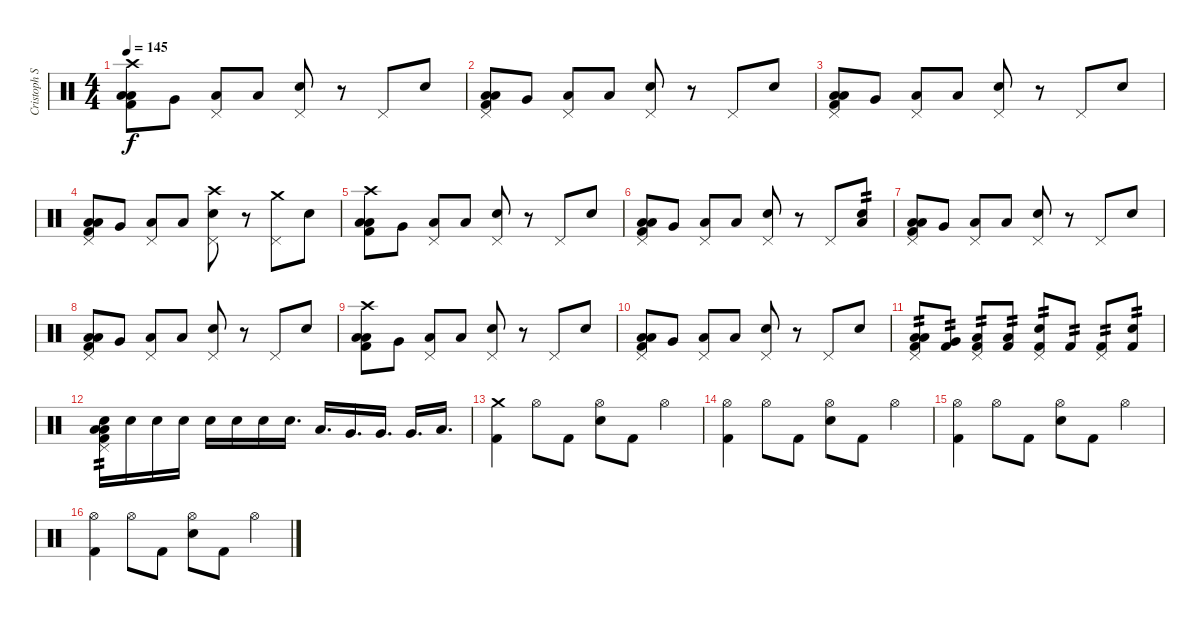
\track ("Cristoph Schneider" "Cristoph S") {instrument percussion}
\staff {score}
\articulation defaults
\ts (4 4)
\tempo 145
\clef neutral
\ks c
("Crash high (hit)" "Low Floor Tom (hit)" "Low Floor Tom (hit)" "Kick (hit) 2").8{dy f} "Very Low Tom (hit)".8 ("Pedal Hi-Hat (hit)" "Low Floor Tom (hit)").8 "Low Floor Tom (hit)".8 ("Pedal Hi-Hat (hit)" "Electric Snare (hit)").8 r.8 "Pedal Hi-Hat (hit)".8 "Electric Snare (hit)".8 |
("Pedal Hi-Hat (hit)" "Low Floor Tom (hit)" "Low Floor Tom (hit)" "Kick (hit) 2").8 "Very Low Tom (hit)".8 ("Pedal Hi-Hat (hit)" "Low Floor Tom (hit)").8 "Low Floor Tom (hit)".8 ("Pedal Hi-Hat (hit)" "Electric Snare (hit)").8 r.8 "Pedal Hi-Hat (hit)".8 "Electric Snare (hit)".8 |
("Pedal Hi-Hat (hit)" "Low Floor Tom (hit)" "Low Floor Tom (hit)" "Kick (hit) 2").8 "Very Low Tom (hit)".8 ("Pedal Hi-Hat (hit)" "Low Floor Tom (hit)").8 "Low Floor Tom (hit)".8 ("Pedal Hi-Hat (hit)" "Electric Snare (hit)").8 r.8 "Pedal Hi-Hat (hit)".8 "Electric Snare (hit)".8 |
("Pedal Hi-Hat (hit)" "Low Floor Tom (hit)" "Low Floor Tom (hit)" "Kick (hit) 2").8 "Very Low Tom (hit)".8 ("Pedal Hi-Hat (hit)" "Low Floor Tom (hit)").8 "Low Floor Tom (hit)".8 ("Crash high (hit)" "Pedal Hi-Hat (hit)" "Electric Snare (hit)").8 r.8 ("Crash medium (hit)" "Pedal Hi-Hat (hit)").8 "Electric Snare (hit)".8 |
("Crash high (hit)" "Low Floor Tom (hit)" "Low Floor Tom (hit)" "Kick (hit) 2").8 "Very Low Tom (hit)".8 ("Pedal Hi-Hat (hit)" "Low Floor Tom (hit)").8 "Low Floor Tom (hit)".8 ("Pedal Hi-Hat (hit)" "Electric Snare (hit)").8 r.8 "Pedal Hi-Hat (hit)".8 "Electric Snare (hit)".8 |
("Pedal Hi-Hat (hit)" "Low Floor Tom (hit)" "Low Floor Tom (hit)" "Kick (hit) 2").8 "Very Low Tom (hit)".8 ("Pedal Hi-Hat (hit)" "Low Floor Tom (hit)").8 "Low Floor Tom (hit)".8 ("Pedal Hi-Hat (hit)" "Electric Snare (hit)").8 r.8 "Pedal Hi-Hat (hit)".8 ("Electric Snare (hit)" "Low Floor Tom (hit)").8{tp 2} |
("Pedal Hi-Hat (hit)" "Low Floor Tom (hit)" "Low Floor Tom (hit)" "Kick (hit) 2").8 "Very Low Tom (hit)".8 ("Pedal Hi-Hat (hit)" "Low Floor Tom (hit)").8 "Low Floor Tom (hit)".8 ("Pedal Hi-Hat (hit)" "Electric Snare (hit)").8 r.8 "Pedal Hi-Hat (hit)".8 "Electric Snare (hit)".8 |
("Pedal Hi-Hat (hit)" "Low Floor Tom (hit)" "Low Floor Tom (hit)" "Kick (hit) 2").8 "Very Low Tom (hit)".8 ("Pedal Hi-Hat (hit)" "Low Floor Tom (hit)").8 "Low Floor Tom (hit)".8 ("Pedal Hi-Hat (hit)" "Electric Snare (hit)").8 r.8 "Pedal Hi-Hat (hit)".8 "Electric Snare (hit)".8 |
("Crash high (hit)" "Low Floor Tom (hit)" "Low Floor Tom (hit)" "Kick (hit) 2").8 "Very Low Tom (hit)".8 ("Pedal Hi-Hat (hit)" "Low Floor Tom (hit)").8 "Low Floor Tom (hit)".8 ("Pedal Hi-Hat (hit)" "Electric Snare (hit)").8 r.8 "Pedal Hi-Hat (hit)".8 "Electric Snare (hit)".8 |
("Pedal Hi-Hat (hit)" "Low Floor Tom (hit)" "Low Floor Tom (hit)" "Kick (hit) 2").8 "Very Low Tom (hit)".8 ("Pedal Hi-Hat (hit)" "Low Floor Tom (hit)").8 "Low Floor Tom (hit)".8 ("Pedal Hi-Hat (hit)" "Electric Snare (hit)").8 r.8 "Pedal Hi-Hat (hit)".8 "Electric Snare (hit)".8 |
("Pedal Hi-Hat (hit)" "Low Floor Tom (hit)" "Low Floor Tom (hit)" "Kick (hit) 2").8{tp 2} ("Very Low Tom (hit)" "Kick (hit) 2").8{tp 2} ("Pedal Hi-Hat (hit)" "Low Floor Tom (hit)" "Kick (hit) 2").8{tp 2} ("Low Floor Tom (hit)" "Kick (hit) 2").8{tp 2} ("Pedal Hi-Hat (hit)" "Electric Snare (hit)" "Kick (hit) 2").8{tp 2} "Kick (hit) 2".8{tp 2} ("Pedal Hi-Hat (hit)" "Kick (hit) 2").8{tp 2} ("Electric Snare (hit)" "Kick (hit) 2").8{tp 2} |
("Pedal Hi-Hat (hit)" "Low Floor Tom (hit)" "Low Floor Tom (hit)" "Electric Snare (hit)" "Kick (hit) 2").16{tp 2} "Electric Snare (hit)".16 "Electric Snare (hit)".16 "Electric Snare (hit)".16 "Electric Snare (hit)".16 "Electric Snare (hit)".16 "Electric Snare (hit)".16 "Electric Snare (hit)".16{d} "Low Tom (hit)".16{d} "Very Low Tom (hit)".16{d} "Very Low Tom (hit)".16{d} "Very Low Tom (hit)".16{d} "Low Floor Tom (hit)".16{d} |
("Kick (hit) 2" "Crash medium (hit)").4 "Hi-Hat (open)".8 "Kick (hit) 2".8 ("Hi-Hat (open)" "Snare (hit) 2").8 "Kick (hit) 2".8 "Hi-Hat (open)".4 |
("Kick (hit) 2" "Hi-Hat (open)").4 "Hi-Hat (open)".8 "Kick (hit) 2".8 ("Hi-Hat (open)" "Snare (hit) 2").8 "Kick (hit) 2".8 "Hi-Hat (open)".4 |
("Kick (hit) 2" "Hi-Hat (open)").4 "Hi-Hat (open)".8 "Kick (hit) 2".8 ("Hi-Hat (open)" "Snare (hit) 2").8 "Kick (hit) 2".8 "Hi-Hat (open)".4 |
("Kick (hit) 2" "Hi-Hat (open)").4 "Hi-Hat (open)".8 "Kick (hit) 2".8 ("Hi-Hat (open)" "Snare (hit) 2").8 "Kick (hit) 2".8 "Hi-Hat (open)".4
